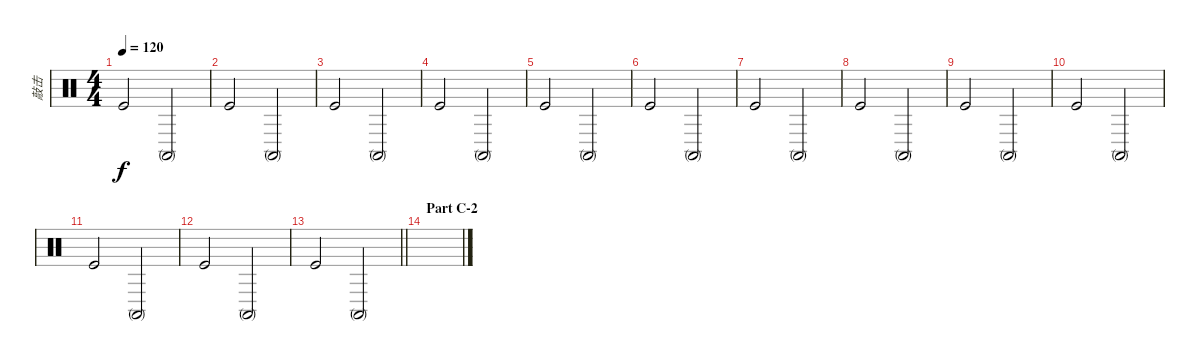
\track ("敲击" "敲击") {instrument percussion}
\staff {score}
\articulation defaults
\ts (4 4)
\tempo 120
\clef neutral
\ks c "Kick (hit)".2{dy f} "Conga high (mute)".2
|
"Kick (hit)".2 "Conga high (mute)".2 |
"Kick (hit)".2 "Conga high (mute)".2 |
"Kick (hit)".2 "Conga high (mute)".2 |
"Kick (hit)".2 "Conga high (mute)".2 |
"Kick (hit)".2 "Conga high (mute)".2 |
"Kick (hit)".2 "Conga high (mute)".2 |
"Kick (hit)".2 "Conga high (mute)".2 |
"Kick (hit)".2 "Conga high (mute)".2 |
"Kick (hit)".2 "Conga high (mute)".2 |
"Kick (hit)".2 "Conga high (mute)".2 |
"Kick (hit)".2 "Conga high (mute)".2 |
\barLineRight lightlight "Kick (hit)".2 "Conga high (mute)".2
|
\section ("" "Part C-2")
